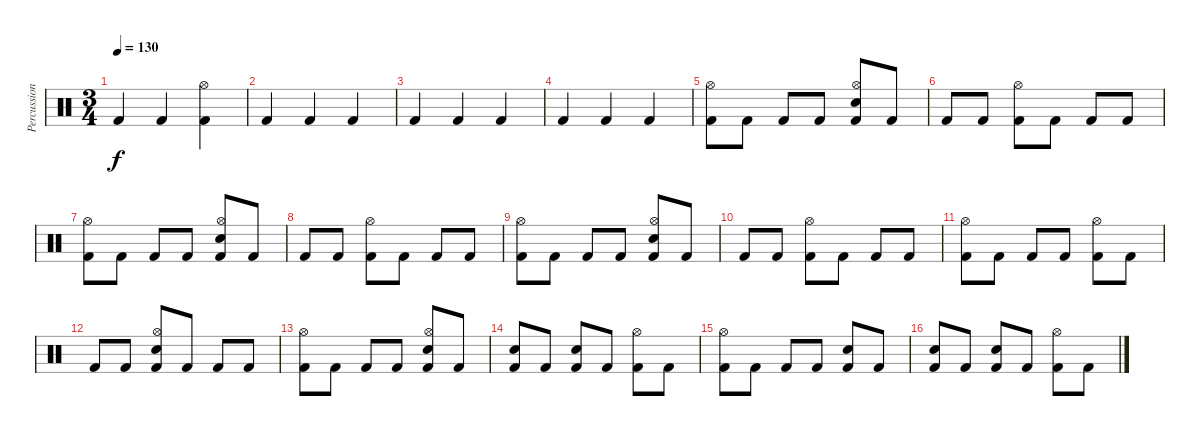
\track ("Percussion" "Percussion") {instrument percussion}
\staff {score}
\articulation defaults
\ts (3 4)
\tempo 130
\clef neutral
\ks c "Kick (hit) 2".4{dy f} "Kick (hit) 2".4
("Hi-Hat (open)" "Kick (hit) 2").4 |
"Kick (hit) 2".4 "Kick (hit) 2".4 "Kick (hit) 2".4 |
"Kick (hit) 2".4 "Kick (hit) 2".4 "Kick (hit) 2".4 |
"Kick (hit) 2".4 "Kick (hit) 2".4 "Kick (hit) 2".4 |
("Hi-Hat (open)" "Kick (hit) 2").8 "Kick (hit) 2".8 "Kick (hit) 2".8 "Kick (hit) 2".8 ("Hi-Hat (open)" "Snare (hit) 2" "Kick (hit) 2").8 "Kick (hit) 2".8 |
"Kick (hit) 2".8 "Kick (hit) 2".8 ("Hi-Hat (open)" "Kick (hit) 2").8 "Kick (hit) 2".8 "Kick (hit) 2".8 "Kick (hit) 2".8 |
("Hi-Hat (open)" "Kick (hit) 2").8 "Kick (hit) 2".8 "Kick (hit) 2".8 "Kick (hit) 2".8 ("Hi-Hat (open)" "Snare (hit) 2" "Kick (hit) 2").8 "Kick (hit) 2".8 |
"Kick (hit) 2".8 "Kick (hit) 2".8 ("Hi-Hat (open)" "Kick (hit) 2").8 "Kick (hit) 2".8 "Kick (hit) 2".8 "Kick (hit) 2".8 |
("Hi-Hat (open)" "Kick (hit) 2").8 "Kick (hit) 2".8 "Kick (hit) 2".8 "Kick (hit) 2".8 ("Hi-Hat (open)" "Snare (hit) 2" "Kick (hit) 2").8 "Kick (hit) 2".8 |
"Kick (hit) 2".8 "Kick (hit) 2".8 ("Hi-Hat (open)" "Kick (hit) 2").8 "Kick (hit) 2".8 "Kick (hit) 2".8 "Kick (hit) 2".8 |
("Hi-Hat (open)" "Kick (hit) 2").8 "Kick (hit) 2".8 "Kick (hit) 2".8 "Kick (hit) 2".8 ("Hi-Hat (open)" "Kick (hit) 2").8 "Kick (hit) 2".8 |
"Kick (hit) 2".8 "Kick (hit) 2".8 ("Hi-Hat (open)" "Snare (hit) 2" "Kick (hit) 2").8 "Kick (hit) 2".8 "Kick (hit) 2".8 "Kick (hit) 2".8 |
("Hi-Hat (open)" "Kick (hit) 2").8 "Kick (hit) 2".8 "Kick (hit) 2".8 "Kick (hit) 2".8 ("Hi-Hat (open)" "Snare (hit) 2" "Kick (hit) 2").8 "Kick (hit) 2".8 |
("Snare (hit) 2" "Kick (hit) 2").8 "Kick (hit) 2".8 ("Snare (hit) 2" "Kick (hit) 2").8 "Kick (hit) 2".8 ("Hi-Hat (open)" "Kick (hit) 2").8 "Kick (hit) 2".8 |
("Hi-Hat (open)" "Kick (hit) 2").8 "Kick (hit) 2".8 "Kick (hit) 2".8 "Kick (hit) 2".8 ("Snare (hit) 2" "Kick (hit) 2").8 "Kick (hit) 2".8 |
("Snare (hit) 2" "Kick (hit) 2").8 "Kick (hit) 2".8 ("Snare (hit) 2" "Kick (hit) 2").8 "Kick (hit) 2".8 ("Hi-Hat (open)" "Kick (hit) 2").8 "Kick (hit) 2".8
